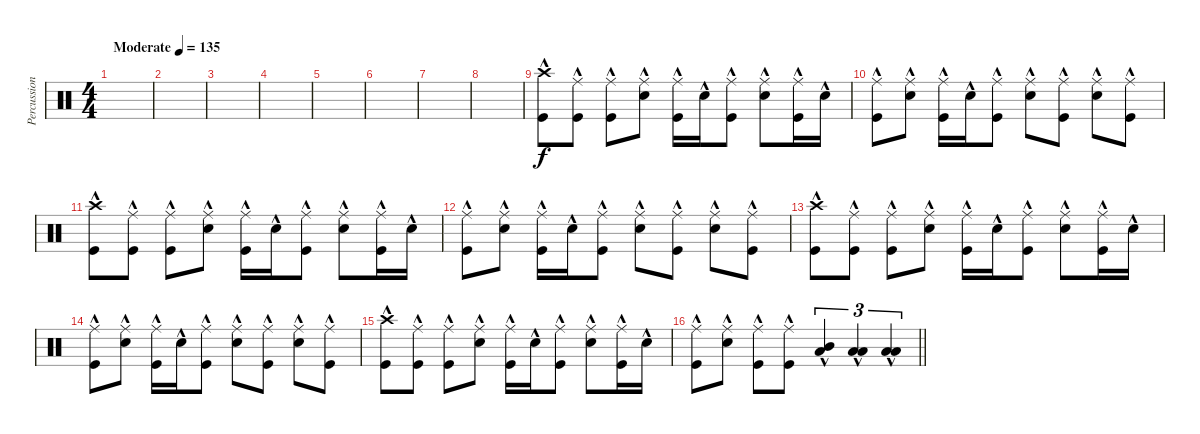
\track ("Percussion" "Percussion") {instrument percussion}
\staff {score}
\articulation defaults
\ts (4 4)
\tempo (135 "Moderate")
\clef neutral
\ks c
|
|
|
|
|
|
|
|
("Crash high (hit)" "Kick (hit)"{hac}).8 ("Ride (middle)" "Kick (hit)"{hac}).8 ("Ride (middle)" "Kick (hit)"{hac}).8 ("Ride (middle)" "Snare (hit) 2"{hac}).8 ("Ride (middle)" "Kick (hit)"{hac}).16 "Snare (hit) 2"{hac}.16 ("Ride (middle)" "Kick (hit)"{hac}).8 ("Ride (middle)" "Snare (hit) 2"{hac}).8 ("Ride (middle)" "Kick (hit)"{hac}).16 "Snare (hit) 2"{hac}.16 |
("Ride (middle)" "Kick (hit)"{hac}).8 ("Ride (middle)" "Snare (hit) 2"{hac}).8 ("Ride (middle)" "Kick (hit)"{hac}).16 "Snare (hit) 2"{hac}.16 ("Ride (middle)" "Kick (hit)"{hac}).8 ("Ride (middle)" "Snare (hit) 2"{hac}).8 ("Ride (middle)" "Kick (hit)"{hac}).8 ("Ride (middle)" "Snare (hit) 2"{hac}).8 ("Ride (middle)" "Kick (hit)"{hac}).8 |
("Crash high (hit)" "Kick (hit)"{hac}).8 ("Ride (middle)" "Kick (hit)"{hac}).8 ("Ride (middle)" "Kick (hit)"{hac}).8 ("Ride (middle)" "Snare (hit) 2"{hac}).8 ("Ride (middle)" "Kick (hit)"{hac}).16 "Snare (hit) 2"{hac}.16 ("Ride (middle)" "Kick (hit)"{hac}).8 ("Ride (middle)" "Snare (hit) 2"{hac}).8 ("Ride (middle)" "Kick (hit)"{hac}).16 "Snare (hit) 2"{hac}.16 |
("Ride (middle)" "Kick (hit)"{hac}).8 ("Ride (middle)" "Snare (hit) 2"{hac}).8 ("Ride (middle)" "Kick (hit)"{hac}).16 "Snare (hit) 2"{hac}.16 ("Ride (middle)" "Kick (hit)"{hac}).8 ("Ride (middle)" "Snare (hit) 2"{hac}).8 ("Ride (middle)" "Kick (hit)"{hac}).8 ("Ride (middle)" "Snare (hit) 2"{hac}).8 ("Ride (middle)" "Kick (hit)"{hac}).8 |
("Crash high (hit)" "Kick (hit)"{hac}).8 ("Ride (middle)" "Kick (hit)"{hac}).8 ("Ride (middle)" "Kick (hit)"{hac}).8 ("Ride (middle)" "Snare (hit) 2"{hac}).8 ("Ride (middle)" "Kick (hit)"{hac}).16 "Snare (hit) 2"{hac}.16 ("Ride (middle)" "Kick (hit)"{hac}).8 ("Ride (middle)" "Snare (hit) 2"{hac}).8 ("Ride (middle)" "Kick (hit)"{hac}).16 "Snare (hit) 2"{hac}.16 |
("Ride (middle)" "Kick (hit)"{hac}).8 ("Ride (middle)" "Snare (hit) 2"{hac}).8 ("Ride (middle)" "Kick (hit)"{hac}).16 "Snare (hit) 2"{hac}.16 ("Ride (middle)" "Kick (hit)"{hac}).8 ("Ride (middle)" "Snare (hit) 2"{hac}).8 ("Ride (middle)" "Kick (hit)"{hac}).8 ("Ride (middle)" "Snare (hit) 2"{hac}).8 ("Ride (middle)" "Kick (hit)"{hac}).8 |
("Crash high (hit)" "Kick (hit)"{hac}).8 ("Ride (middle)" "Kick (hit)"{hac}).8 ("Ride (middle)" "Kick (hit)"{hac}).8 ("Ride (middle)" "Snare (hit) 2"{hac}).8 ("Ride (middle)" "Kick (hit)"{hac}).16 "Snare (hit) 2"{hac}.16 ("Ride (middle)" "Kick (hit)"{hac}).8 ("Ride (middle)" "Snare (hit) 2"{hac}).8 ("Ride (middle)" "Kick (hit)"{hac}).16 "Snare (hit) 2"{hac}.16 |
\barLineRight lightlight
("Ride (middle)" "Kick (hit)"{hac}).8 ("Ride (middle)" "Snare (hit) 2"{hac}).8 ("Ride (middle)" "Kick (hit)"{hac}).8 ("Ride (middle)" "Kick (hit)"{hac}).8 ("Mid Tom (hit)"{hac} "Low Tom (hit)"{hac}).4{tu (3 2)} ("Low Tom (hit)"{hac} "Low Floor Tom (hit)"{hac}).4{tu (3 2)} ("Low Floor Tom (hit)"{hac} "Low Floor Tom (hit)"{hac}).4{tu (3 2)}
